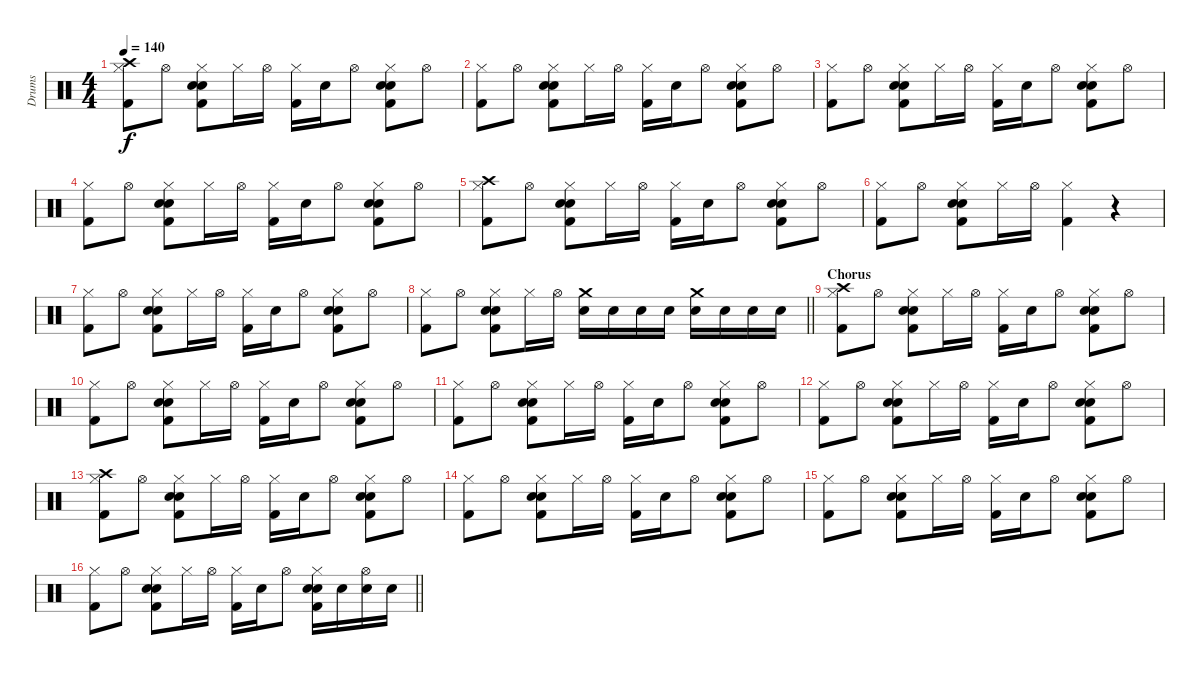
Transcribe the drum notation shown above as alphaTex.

\track ("Drums" "Drums") {instrument percussion}
\staff {score}
\articulation defaults
\ts (4 4)
\tempo 140
\clef neutral
\ks c
("Crash high (hit)" "Hi-Hat (closed)" "Kick (hit) 2").8{dy f} "Hi-Hat (open)".8 ("Hi-Hat (closed)" "Hand Clap (hit)" "Snare (hit) 2" "Kick (hit) 2").8 "Hi-Hat (closed)".16 "Hi-Hat (open)".16 ("Hi-Hat (closed)" "Kick (hit) 2").16 "Hand Clap (hit)".16 "Hi-Hat (open)".8 ("Hi-Hat (closed)" "Hand Clap (hit)" "Snare (hit) 2" "Kick (hit) 2").8 "Hi-Hat (open)".8 |
("Hi-Hat (closed)" "Kick (hit) 2").8 "Hi-Hat (open)".8 ("Hi-Hat (closed)" "Hand Clap (hit)" "Snare (hit) 2" "Kick (hit) 2").8 "Hi-Hat (closed)".16 "Hi-Hat (open)".16 ("Hi-Hat (closed)" "Kick (hit) 2").16 "Hand Clap (hit)".16 "Hi-Hat (open)".8 ("Hi-Hat (closed)" "Hand Clap (hit)" "Snare (hit) 2" "Kick (hit) 2").8 "Hi-Hat (open)".8 |
("Hi-Hat (closed)" "Kick (hit) 2").8 "Hi-Hat (open)".8 ("Hi-Hat (closed)" "Hand Clap (hit)" "Snare (hit) 2" "Kick (hit) 2").8 "Hi-Hat (closed)".16 "Hi-Hat (open)".16 ("Hi-Hat (closed)" "Kick (hit) 2").16 "Hand Clap (hit)".16 "Hi-Hat (open)".8 ("Hi-Hat (closed)" "Hand Clap (hit)" "Snare (hit) 2" "Kick (hit) 2").8 "Hi-Hat (open)".8 |
("Hi-Hat (closed)" "Kick (hit) 2").8 "Hi-Hat (open)".8 ("Hi-Hat (closed)" "Hand Clap (hit)" "Snare (hit) 2" "Kick (hit) 2").8 "Hi-Hat (closed)".16 "Hi-Hat (open)".16 ("Hi-Hat (closed)" "Kick (hit) 2").16 "Hand Clap (hit)".16 "Hi-Hat (open)".8 ("Hi-Hat (closed)" "Hand Clap (hit)" "Snare (hit) 2" "Kick (hit) 2").8 "Hi-Hat (open)".8 |
("Crash high (hit)" "Hi-Hat (closed)" "Kick (hit) 2").8 "Hi-Hat (open)".8 ("Hi-Hat (closed)" "Hand Clap (hit)" "Snare (hit) 2" "Kick (hit) 2").8 "Hi-Hat (closed)".16 "Hi-Hat (open)".16 ("Hi-Hat (closed)" "Kick (hit) 2").16 "Hand Clap (hit)".16 "Hi-Hat (open)".8 ("Hi-Hat (closed)" "Hand Clap (hit)" "Snare (hit) 2" "Kick (hit) 2").8 "Hi-Hat (open)".8 |
("Hi-Hat (closed)" "Kick (hit) 2").8 "Hi-Hat (open)".8 ("Hi-Hat (closed)" "Hand Clap (hit)" "Snare (hit) 2" "Kick (hit) 2").8 "Hi-Hat (closed)".16 "Hi-Hat (open)".16 ("Hi-Hat (closed)" "Kick (hit) 2").4 r.4 |
("Hi-Hat (closed)" "Kick (hit) 2").8 "Hi-Hat (open)".8 ("Hi-Hat (closed)" "Hand Clap (hit)" "Snare (hit) 2" "Kick (hit) 2").8 "Hi-Hat (closed)".16 "Hi-Hat (open)".16 ("Hi-Hat (closed)" "Kick (hit) 2").16 "Hand Clap (hit)".16 "Hi-Hat (open)".8 ("Hi-Hat (closed)" "Hand Clap (hit)" "Snare (hit) 2" "Kick (hit) 2").8 "Hi-Hat (open)".8 |
\barLineRight lightlight
("Hi-Hat (closed)" "Kick (hit) 2").8 "Hi-Hat (open)".8 ("Hi-Hat (closed)" "Hand Clap (hit)" "Snare (hit) 2" "Kick (hit) 2").8 "Hi-Hat (closed)".16 "Hi-Hat (open)".16 ("Crash medium (hit)" "Snare (hit) 2").16 "Snare (hit) 2".16 "Snare (hit) 2".16 "Snare (hit) 2".16 ("Crash medium (hit)" "Snare (hit) 2").16 "Snare (hit) 2".16 "Snare (hit) 2".16 "Snare (hit) 2".16 |
\section ("" "Chorus")
("Crash high (hit)" "Hi-Hat (closed)" "Kick (hit) 2").8 "Hi-Hat (open)".8 ("Hi-Hat (closed)" "Hand Clap (hit)" "Snare (hit) 2" "Kick (hit) 2").8 "Hi-Hat (closed)".16 "Hi-Hat (open)".16 ("Hi-Hat (closed)" "Kick (hit) 2").16 "Hand Clap (hit)".16 "Hi-Hat (open)".8 ("Hi-Hat (closed)" "Hand Clap (hit)" "Snare (hit) 2" "Kick (hit) 2").8 "Hi-Hat (open)".8 |
("Hi-Hat (closed)" "Kick (hit) 2").8 "Hi-Hat (open)".8 ("Hi-Hat (closed)" "Hand Clap (hit)" "Snare (hit) 2" "Kick (hit) 2").8 "Hi-Hat (closed)".16 "Hi-Hat (open)".16 ("Hi-Hat (closed)" "Kick (hit) 2").16 "Hand Clap (hit)".16 "Hi-Hat (open)".8 ("Hi-Hat (closed)" "Hand Clap (hit)" "Snare (hit) 2" "Kick (hit) 2").8 "Hi-Hat (open)".8 |
("Hi-Hat (closed)" "Kick (hit) 2").8 "Hi-Hat (open)".8 ("Hi-Hat (closed)" "Hand Clap (hit)" "Snare (hit) 2" "Kick (hit) 2").8 "Hi-Hat (closed)".16 "Hi-Hat (open)".16 ("Hi-Hat (closed)" "Kick (hit) 2").16 "Hand Clap (hit)".16 "Hi-Hat (open)".8 ("Hi-Hat (closed)" "Hand Clap (hit)" "Snare (hit) 2" "Kick (hit) 2").8 "Hi-Hat (open)".8 |
("Hi-Hat (closed)" "Kick (hit) 2").8 "Hi-Hat (open)".8 ("Hi-Hat (closed)" "Hand Clap (hit)" "Snare (hit) 2" "Kick (hit) 2").8 "Hi-Hat (closed)".16 "Hi-Hat (open)".16 ("Hi-Hat (closed)" "Kick (hit) 2").16 "Hand Clap (hit)".16 "Hi-Hat (open)".8 ("Hi-Hat (closed)" "Hand Clap (hit)" "Snare (hit) 2" "Kick (hit) 2").8 "Hi-Hat (open)".8 |
("Crash high (hit)" "Hi-Hat (closed)" "Kick (hit) 2").8 "Hi-Hat (open)".8 ("Hi-Hat (closed)" "Hand Clap (hit)" "Snare (hit) 2" "Kick (hit) 2").8 "Hi-Hat (closed)".16 "Hi-Hat (open)".16 ("Hi-Hat (closed)" "Kick (hit) 2").16 "Hand Clap (hit)".16 "Hi-Hat (open)".8 ("Hi-Hat (closed)" "Hand Clap (hit)" "Snare (hit) 2" "Kick (hit) 2").8 "Hi-Hat (open)".8 |
("Hi-Hat (closed)" "Kick (hit) 2").8 "Hi-Hat (open)".8 ("Hi-Hat (closed)" "Hand Clap (hit)" "Snare (hit) 2" "Kick (hit) 2").8 "Hi-Hat (closed)".16 "Hi-Hat (open)".16 ("Hi-Hat (closed)" "Kick (hit) 2").16 "Hand Clap (hit)".16 "Hi-Hat (open)".8 ("Hi-Hat (closed)" "Hand Clap (hit)" "Snare (hit) 2" "Kick (hit) 2").8 "Hi-Hat (open)".8 |
("Hi-Hat (closed)" "Kick (hit) 2").8 "Hi-Hat (open)".8 ("Hi-Hat (closed)" "Hand Clap (hit)" "Snare (hit) 2" "Kick (hit) 2").8 "Hi-Hat (closed)".16 "Hi-Hat (open)".16 ("Hi-Hat (closed)" "Kick (hit) 2").16 "Hand Clap (hit)".16 "Hi-Hat (open)".8 ("Hi-Hat (closed)" "Hand Clap (hit)" "Snare (hit) 2" "Kick (hit) 2").8 "Hi-Hat (open)".8 |
\barLineRight lightlight
("Hi-Hat (closed)" "Kick (hit) 2").8 "Hi-Hat (open)".8 ("Hi-Hat (closed)" "Hand Clap (hit)" "Snare (hit) 2" "Kick (hit) 2").8 "Hi-Hat (closed)".16 "Hi-Hat (open)".16 ("Hi-Hat (closed)" "Kick (hit) 2").16 "Hand Clap (hit)".16 "Hi-Hat (open)".8 ("Hi-Hat (closed)" "Hand Clap (hit)" "Snare (hit) 2" "Kick (hit) 2").16 "Snare (hit) 2".16 ("Hi-Hat (open)" "Snare (hit) 2").16 "Snare (hit) 2".16
